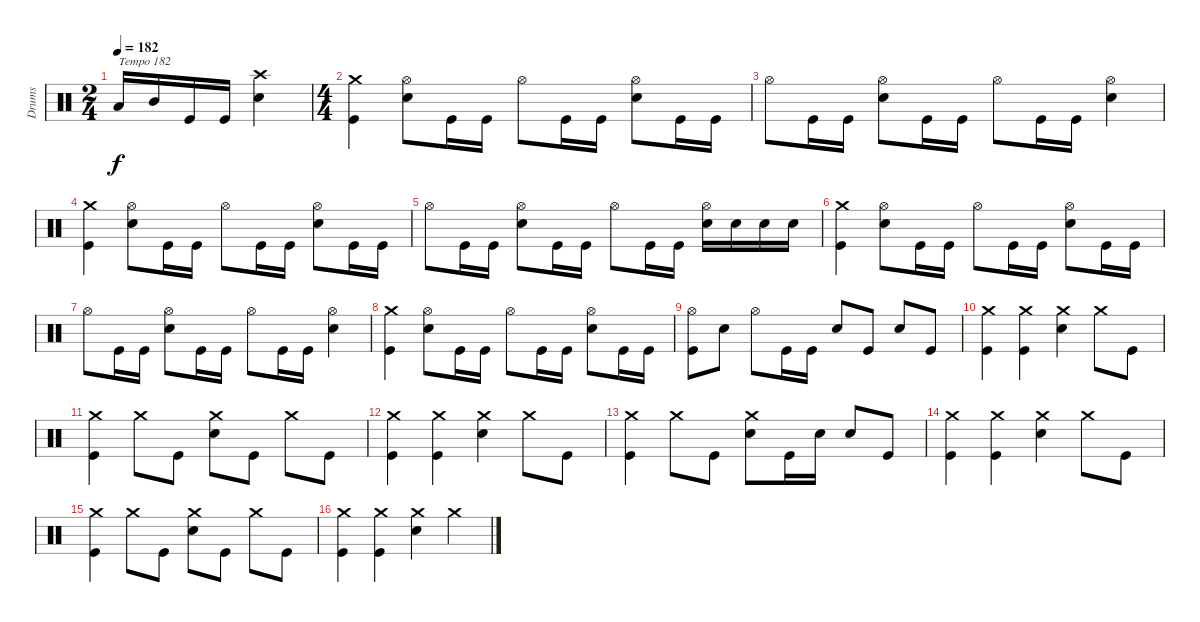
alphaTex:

\track ("Drums" "Drums") {instrument percussion}
\staff {score}
\articulation defaults
\ts (2 4)
\tempo 182
\clef neutral
\ks c "Low Tom (hit)".16{txt "Tempo 182" dy f} "Mid Tom (hit)".16 "Kick (hit)".16 "Kick (hit)".16
("Crash high (hit)" "Electric Snare (hit)").4 |
\ts (4 4)
("Crash medium (hit)" "Kick (hit)").4 ("Hi-Hat (open)" "Electric Snare (hit)").8 "Kick (hit)".16 "Kick (hit)".16 "Hi-Hat (open)".8 "Kick (hit)".16 "Kick (hit)".16 ("Hi-Hat (open)" "Electric Snare (hit)").8 "Kick (hit)".16 "Kick (hit)".16 |
"Hi-Hat (open)".8 "Kick (hit)".16 "Kick (hit)".16 ("Hi-Hat (open)" "Electric Snare (hit)").8 "Kick (hit)".16 "Kick (hit)".16 "Hi-Hat (open)".8 "Kick (hit)".16 "Kick (hit)".16 ("Hi-Hat (open)" "Electric Snare (hit)").4 |
("Crash medium (hit)" "Kick (hit)").4 ("Hi-Hat (open)" "Electric Snare (hit)").8 "Kick (hit)".16 "Kick (hit)".16 "Hi-Hat (open)".8 "Kick (hit)".16 "Kick (hit)".16 ("Hi-Hat (open)" "Electric Snare (hit)").8 "Kick (hit)".16 "Kick (hit)".16 |
"Hi-Hat (open)".8 "Kick (hit)".16 "Kick (hit)".16 ("Hi-Hat (open)" "Electric Snare (hit)").8 "Kick (hit)".16 "Kick (hit)".16 "Hi-Hat (open)".8 "Kick (hit)".16 "Kick (hit)".16 ("Hi-Hat (open)" "Electric Snare (hit)").16 "Electric Snare (hit)".16 "Electric Snare (hit)".16 "Electric Snare (hit)".16 |
("Crash medium (hit)" "Kick (hit)").4 ("Hi-Hat (open)" "Electric Snare (hit)").8 "Kick (hit)".16 "Kick (hit)".16 "Hi-Hat (open)".8 "Kick (hit)".16 "Kick (hit)".16 ("Hi-Hat (open)" "Electric Snare (hit)").8 "Kick (hit)".16 "Kick (hit)".16 |
"Hi-Hat (open)".8 "Kick (hit)".16 "Kick (hit)".16 ("Hi-Hat (open)" "Electric Snare (hit)").8 "Kick (hit)".16 "Kick (hit)".16 "Hi-Hat (open)".8 "Kick (hit)".16 "Kick (hit)".16 ("Hi-Hat (open)" "Electric Snare (hit)").4 |
("Crash medium (hit)" "Kick (hit)").4 ("Hi-Hat (open)" "Electric Snare (hit)").8 "Kick (hit)".16 "Kick (hit)".16 "Hi-Hat (open)".8 "Kick (hit)".16 "Kick (hit)".16 ("Hi-Hat (open)" "Electric Snare (hit)").8 "Kick (hit)".16 "Kick (hit)".16 |
("Hi-Hat (open)" "Kick (hit)").8 "Electric Snare (hit)".8 "Hi-Hat (open)".8 "Kick (hit)".16 "Kick (hit)".16 "Electric Snare (hit)".8 "Kick (hit)".8 "Electric Snare (hit)".8 "Kick (hit)".8 |
("Crash medium (hit)" "Kick (hit)").4 ("Crash medium (hit)" "Kick (hit)").4 ("Crash medium (hit)" "Electric Snare (hit)").4 "Crash medium (hit)".8 "Kick (hit)".8 |
("Crash medium (hit)" "Kick (hit)").4 "Crash medium (hit)".8 "Kick (hit)".8 ("Crash medium (hit)" "Electric Snare (hit)").8 "Kick (hit)".8 "Crash medium (hit)".8 "Kick (hit)".8 |
("Crash medium (hit)" "Kick (hit)").4 ("Crash medium (hit)" "Kick (hit)").4 ("Crash medium (hit)" "Electric Snare (hit)").4 "Crash medium (hit)".8 "Kick (hit)".8 |
("Crash medium (hit)" "Kick (hit)").4 "Crash medium (hit)".8 "Kick (hit)".8 ("Crash medium (hit)" "Electric Snare (hit)").8 "Kick (hit)".16 "Electric Snare (hit)".16 "Electric Snare (hit)".8 "Kick (hit)".8 |
("Crash medium (hit)" "Kick (hit)").4 ("Crash medium (hit)" "Kick (hit)").4 ("Crash medium (hit)" "Electric Snare (hit)").4 "Crash medium (hit)".8 "Kick (hit)".8 |
("Crash medium (hit)" "Kick (hit)").4 "Crash medium (hit)".8 "Kick (hit)".8 ("Crash medium (hit)" "Electric Snare (hit)").8 "Kick (hit)".8 "Crash medium (hit)".8 "Kick (hit)".8 |
("Crash medium (hit)" "Kick (hit)").4 ("Crash medium (hit)" "Kick (hit)").4 ("Crash medium (hit)" "Electric Snare (hit)").4 "Crash medium (hit)".4
